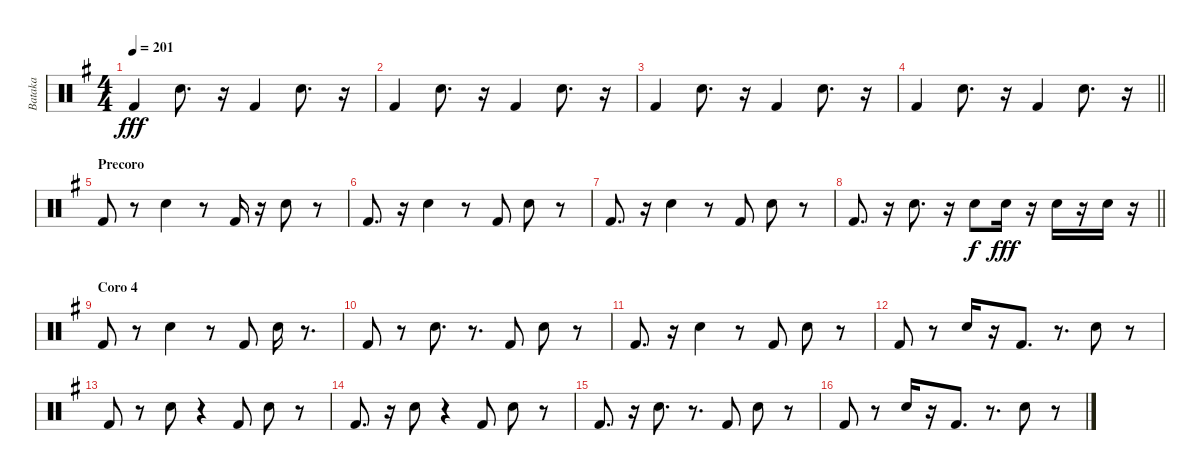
\track ("Bataka" "Bataka") {instrument percussion}
\staff {score}
\articulation defaults
\ts (4 4)
\tempo 201
\clef neutral
\ks g "Kick (hit) 2".4{dy fff} "Electric Snare (hit)".8{d}
r.16 "Kick (hit) 2".4 "Electric Snare (hit)".8{d} r.16 |
"Kick (hit) 2".4 "Electric Snare (hit)".8{d} r.16 "Kick (hit) 2".4 "Electric Snare (hit)".8{d} r.16 |
"Kick (hit) 2".4 "Electric Snare (hit)".8{d} r.16 "Kick (hit) 2".4 "Electric Snare (hit)".8{d} r.16 |
\barLineRight lightlight "Kick (hit) 2".4 "Electric Snare (hit)".8{d}
r.16 "Kick (hit) 2".4 "Electric Snare (hit)".8{d} r.16 |
\section ("" "Precoro")
"Kick (hit) 2".8 r.8 "Electric Snare (hit)".4 r.8 "Kick (hit) 2".16 r.16 "Electric Snare (hit)".8 r.8 |
"Kick (hit) 2".8{d} r.16 "Electric Snare (hit)".4 r.8 "Kick (hit) 2".8 "Electric Snare (hit)".8 r.8 |
"Kick (hit) 2".8{d} r.16 "Electric Snare (hit)".4 r.8 "Kick (hit) 2".8 "Electric Snare (hit)".8 r.8 |
\barLineRight lightlight "Kick (hit) 2".8{d}
r.16 "Electric Snare (hit)".8{d} r.16 "Electric Snare (hit)".8{dy f} "Electric Snare (hit)".16{dy fff} r.16 "Electric Snare (hit)".16 r.16 "Electric Snare (hit)".16 r.16 |
\section ("" "Coro 4")
"Kick (hit) 2".8 r.8 "Electric Snare (hit)".4 r.8 "Kick (hit) 2".8 "Electric Snare (hit)".16 r.8{d} |
"Kick (hit) 2".8 r.8 "Electric Snare (hit)".8{d} r.8{d} "Kick (hit) 2".8 "Electric Snare (hit)".8 r.8 |
"Kick (hit) 2".8{d} r.16 "Electric Snare (hit)".4 r.8 "Kick (hit) 2".8 "Electric Snare (hit)".8 r.8 |
"Kick (hit) 2".8 r.8 "Electric Snare (hit)".16 r.16 "Kick (hit) 2".8{d} r.8{d} "Electric Snare (hit)".8 r.8 |
"Kick (hit) 2".8 r.8 "Electric Snare (hit)".8 r.4 "Kick (hit) 2".8 "Electric Snare (hit)".8 r.8 |
"Kick (hit) 2".8{d} r.16 "Electric Snare (hit)".8 r.4 "Kick (hit) 2".8 "Electric Snare (hit)".8 r.8 |
"Kick (hit) 2".8{d} r.16 "Electric Snare (hit)".8{d} r.8{d} "Kick (hit) 2".8 "Electric Snare (hit)".8 r.8 |
"Kick (hit) 2".8 r.8 "Electric Snare (hit)".16 r.16 "Kick (hit) 2".8{d} r.8{d} "Electric Snare (hit)".8 r.8
